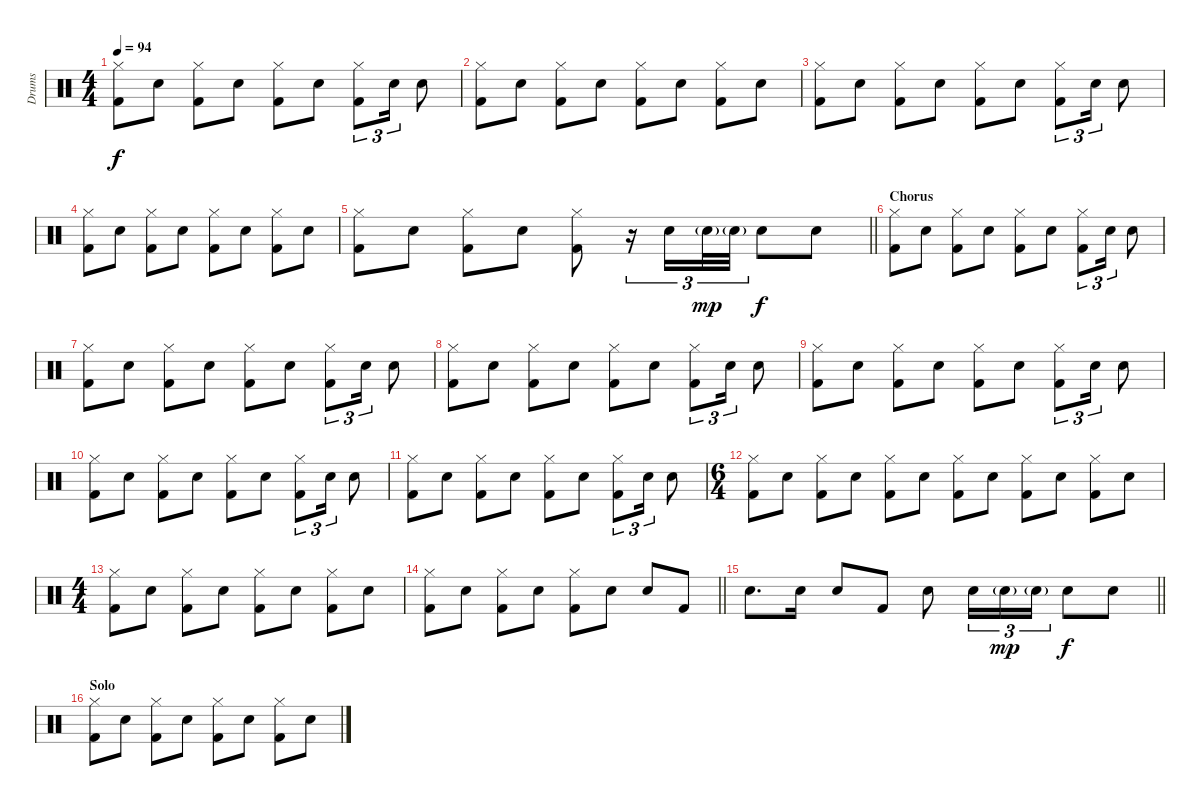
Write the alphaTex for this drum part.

\track ("Drums" "Drums") {instrument percussion}
\staff {score}
\articulation defaults
\ts (4 4)
\tempo 94
\clef neutral
\ks c
("Hi-Hat (closed)" "Kick (hit) 2").8{dy f} "Electric Snare (hit)".8 ("Hi-Hat (closed)" "Kick (hit) 2").8 "Electric Snare (hit)".8 ("Hi-Hat (closed)" "Kick (hit) 2").8 "Electric Snare (hit)".8 ("Hi-Hat (closed)" "Kick (hit) 2").8{tu (3 2)} "Electric Snare (hit)".16{tu (3 2)} "Electric Snare (hit)".8 |
("Hi-Hat (closed)" "Kick (hit) 2").8 "Electric Snare (hit)".8 ("Hi-Hat (closed)" "Kick (hit) 2").8 "Electric Snare (hit)".8 ("Hi-Hat (closed)" "Kick (hit) 2").8 "Electric Snare (hit)".8 ("Hi-Hat (closed)" "Kick (hit) 2").8 "Electric Snare (hit)".8 |
("Hi-Hat (closed)" "Kick (hit) 2").8 "Electric Snare (hit)".8 ("Hi-Hat (closed)" "Kick (hit) 2").8 "Electric Snare (hit)".8 ("Hi-Hat (closed)" "Kick (hit) 2").8 "Electric Snare (hit)".8 ("Hi-Hat (closed)" "Kick (hit) 2").8{tu (3 2)} "Electric Snare (hit)".16{tu (3 2)} "Electric Snare (hit)".8 |
("Hi-Hat (closed)" "Kick (hit) 2").8 "Electric Snare (hit)".8 ("Hi-Hat (closed)" "Kick (hit) 2").8 "Electric Snare (hit)".8 ("Hi-Hat (closed)" "Kick (hit) 2").8 "Electric Snare (hit)".8 ("Hi-Hat (closed)" "Kick (hit) 2").8 "Electric Snare (hit)".8 |
\barLineRight lightlight
("Hi-Hat (closed)" "Kick (hit) 2").8 "Electric Snare (hit)".8 ("Hi-Hat (closed)" "Kick (hit) 2").8 "Electric Snare (hit)".8 ("Hi-Hat (closed)" "Kick (hit) 2").8 r.16{tu (3 2)} "Electric Snare (hit)".16{tu (3 2)} "Electric Snare (hit)"{g}.32{tu (3 2) dy mp} "Electric Snare (hit)"{g}.32{tu (3 2)} "Electric Snare (hit)".8{dy f} "Electric Snare (hit)".8 |
\section ("" "Chorus")
("Hi-Hat (closed)" "Kick (hit) 2").8 "Electric Snare (hit)".8 ("Hi-Hat (closed)" "Kick (hit) 2").8 "Electric Snare (hit)".8 ("Hi-Hat (closed)" "Kick (hit) 2").8 "Electric Snare (hit)".8 ("Hi-Hat (closed)" "Kick (hit) 2").8{tu (3 2)} "Electric Snare (hit)".16{tu (3 2)} "Electric Snare (hit)".8 |
("Hi-Hat (closed)" "Kick (hit) 2").8 "Electric Snare (hit)".8 ("Hi-Hat (closed)" "Kick (hit) 2").8 "Electric Snare (hit)".8 ("Hi-Hat (closed)" "Kick (hit) 2").8 "Electric Snare (hit)".8 ("Hi-Hat (closed)" "Kick (hit) 2").8{tu (3 2)} "Electric Snare (hit)".16{tu (3 2)} "Electric Snare (hit)".8 |
("Hi-Hat (closed)" "Kick (hit) 2").8 "Electric Snare (hit)".8 ("Hi-Hat (closed)" "Kick (hit) 2").8 "Electric Snare (hit)".8 ("Hi-Hat (closed)" "Kick (hit) 2").8 "Electric Snare (hit)".8 ("Hi-Hat (closed)" "Kick (hit) 2").8{tu (3 2)} "Electric Snare (hit)".16{tu (3 2)} "Electric Snare (hit)".8 |
("Hi-Hat (closed)" "Kick (hit) 2").8 "Electric Snare (hit)".8 ("Hi-Hat (closed)" "Kick (hit) 2").8 "Electric Snare (hit)".8 ("Hi-Hat (closed)" "Kick (hit) 2").8 "Electric Snare (hit)".8 ("Hi-Hat (closed)" "Kick (hit) 2").8{tu (3 2)} "Electric Snare (hit)".16{tu (3 2)} "Electric Snare (hit)".8 |
("Hi-Hat (closed)" "Kick (hit) 2").8 "Electric Snare (hit)".8 ("Hi-Hat (closed)" "Kick (hit) 2").8 "Electric Snare (hit)".8 ("Hi-Hat (closed)" "Kick (hit) 2").8 "Electric Snare (hit)".8 ("Hi-Hat (closed)" "Kick (hit) 2").8{tu (3 2)} "Electric Snare (hit)".16{tu (3 2)} "Electric Snare (hit)".8 |
("Hi-Hat (closed)" "Kick (hit) 2").8 "Electric Snare (hit)".8 ("Hi-Hat (closed)" "Kick (hit) 2").8 "Electric Snare (hit)".8 ("Hi-Hat (closed)" "Kick (hit) 2").8 "Electric Snare (hit)".8 ("Hi-Hat (closed)" "Kick (hit) 2").8{tu (3 2)} "Electric Snare (hit)".16{tu (3 2)} "Electric Snare (hit)".8 |
\ts (6 4)
("Hi-Hat (closed)" "Kick (hit) 2").8 "Electric Snare (hit)".8 ("Hi-Hat (closed)" "Kick (hit) 2").8 "Electric Snare (hit)".8 ("Hi-Hat (closed)" "Kick (hit) 2").8 "Electric Snare (hit)".8 ("Hi-Hat (closed)" "Kick (hit) 2").8 "Electric Snare (hit)".8 ("Hi-Hat (closed)" "Kick (hit) 2").8 "Electric Snare (hit)".8 ("Hi-Hat (closed)" "Kick (hit) 2").8 "Electric Snare (hit)".8 |
\ts (4 4)
("Hi-Hat (closed)" "Kick (hit) 2").8 "Electric Snare (hit)".8 ("Hi-Hat (closed)" "Kick (hit) 2").8 "Electric Snare (hit)".8 ("Hi-Hat (closed)" "Kick (hit) 2").8 "Electric Snare (hit)".8 ("Hi-Hat (closed)" "Kick (hit) 2").8 "Electric Snare (hit)".8 |
\barLineRight lightlight
("Hi-Hat (closed)" "Kick (hit) 2").8 "Electric Snare (hit)".8 ("Hi-Hat (closed)" "Kick (hit) 2").8 "Electric Snare (hit)".8 ("Hi-Hat (closed)" "Kick (hit) 2").8 "Electric Snare (hit)".8 "Electric Snare (hit)".8 "Kick (hit) 2".8 |
\barLineRight lightlight "Electric Snare (hit)".8{d} "Electric Snare (hit)".16 "Electric Snare (hit)".8 "Kick (hit) 2".8 "Electric Snare (hit)".8 "Electric Snare (hit)".16{tu (3 2)} "Electric Snare (hit)"{g}.16{tu (3 2) dy mp} "Electric Snare (hit)"{g}.16{tu (3 2)} "Electric Snare (hit)".8{dy f} "Electric Snare (hit)".8
|
\section ("" "Solo")
("Hi-Hat (closed)" "Kick (hit) 2").8 "Electric Snare (hit)".8 ("Hi-Hat (closed)" "Kick (hit) 2").8 "Electric Snare (hit)".8 ("Hi-Hat (closed)" "Kick (hit) 2").8 "Electric Snare (hit)".8 ("Hi-Hat (closed)" "Kick (hit) 2").8 "Electric Snare (hit)".8
